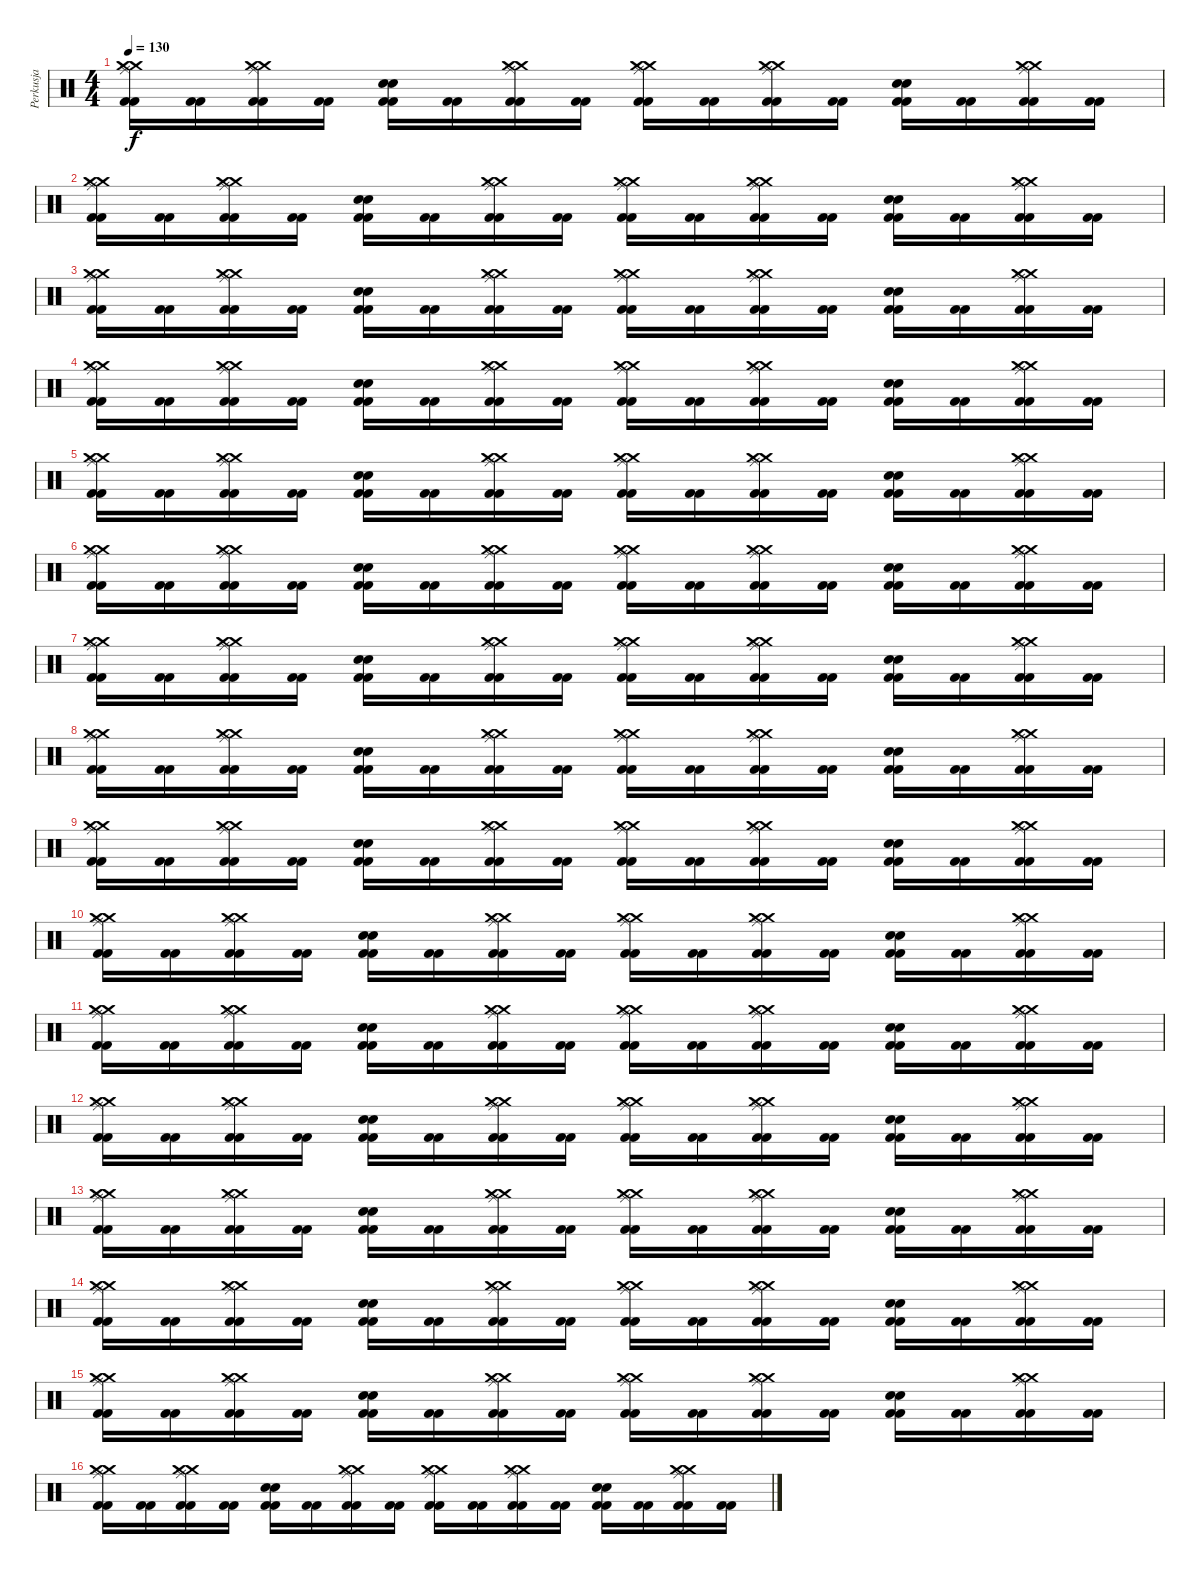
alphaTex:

\track ("Perkusja" "Perkusja") {instrument percussion}
\staff {score}
\articulation defaults
\ts (4 4)
\tempo 130
\clef neutral
\ks c
("Ride (middle)" "Crash medium (hit)" "Crash medium (hit)" "Kick (hit) 2" "Kick (hit) 2").16{dy f} ("Kick (hit) 2" "Kick (hit) 2").16 ("Ride (middle)" "Crash medium (hit)" "Crash medium (hit)" "Kick (hit) 2" "Kick (hit) 2").16 ("Kick (hit) 2" "Kick (hit) 2").16 ("Electric Snare (hit)" "Electric Snare (hit)" "Kick (hit) 2" "Kick (hit) 2").16 ("Kick (hit) 2" "Kick (hit) 2").16 ("Ride (middle)" "Crash medium (hit)" "Crash medium (hit)" "Kick (hit) 2" "Kick (hit) 2").16 ("Kick (hit) 2" "Kick (hit) 2").16 ("Ride (middle)" "Crash medium (hit)" "Crash medium (hit)" "Kick (hit) 2" "Kick (hit) 2").16 ("Kick (hit) 2" "Kick (hit) 2").16 ("Ride (middle)" "Crash medium (hit)" "Crash medium (hit)" "Kick (hit) 2" "Kick (hit) 2").16 ("Kick (hit) 2" "Kick (hit) 2").16 ("Electric Snare (hit)" "Electric Snare (hit)" "Kick (hit) 2" "Kick (hit) 2").16 ("Kick (hit) 2" "Kick (hit) 2").16 ("Ride (middle)" "Crash medium (hit)" "Crash medium (hit)" "Kick (hit) 2" "Kick (hit) 2").16 ("Kick (hit) 2" "Kick (hit) 2").16 |
("Ride (middle)" "Crash medium (hit)" "Crash medium (hit)" "Kick (hit) 2" "Kick (hit) 2").16 ("Kick (hit) 2" "Kick (hit) 2").16 ("Ride (middle)" "Crash medium (hit)" "Crash medium (hit)" "Kick (hit) 2" "Kick (hit) 2").16 ("Kick (hit) 2" "Kick (hit) 2").16 ("Electric Snare (hit)" "Electric Snare (hit)" "Kick (hit) 2" "Kick (hit) 2").16 ("Kick (hit) 2" "Kick (hit) 2").16 ("Ride (middle)" "Crash medium (hit)" "Crash medium (hit)" "Kick (hit) 2" "Kick (hit) 2").16 ("Kick (hit) 2" "Kick (hit) 2").16 ("Ride (middle)" "Crash medium (hit)" "Crash medium (hit)" "Kick (hit) 2" "Kick (hit) 2").16 ("Kick (hit) 2" "Kick (hit) 2").16 ("Ride (middle)" "Crash medium (hit)" "Crash medium (hit)" "Kick (hit) 2" "Kick (hit) 2").16 ("Kick (hit) 2" "Kick (hit) 2").16 ("Electric Snare (hit)" "Electric Snare (hit)" "Kick (hit) 2" "Kick (hit) 2").16 ("Kick (hit) 2" "Kick (hit) 2").16 ("Ride (middle)" "Crash medium (hit)" "Crash medium (hit)" "Kick (hit) 2" "Kick (hit) 2").16 ("Kick (hit) 2" "Kick (hit) 2").16 |
("Ride (middle)" "Crash medium (hit)" "Crash medium (hit)" "Kick (hit) 2" "Kick (hit) 2").16 ("Kick (hit) 2" "Kick (hit) 2").16 ("Ride (middle)" "Crash medium (hit)" "Crash medium (hit)" "Kick (hit) 2" "Kick (hit) 2").16 ("Kick (hit) 2" "Kick (hit) 2").16 ("Electric Snare (hit)" "Electric Snare (hit)" "Kick (hit) 2" "Kick (hit) 2").16 ("Kick (hit) 2" "Kick (hit) 2").16 ("Ride (middle)" "Crash medium (hit)" "Crash medium (hit)" "Kick (hit) 2" "Kick (hit) 2").16 ("Kick (hit) 2" "Kick (hit) 2").16 ("Ride (middle)" "Crash medium (hit)" "Crash medium (hit)" "Kick (hit) 2" "Kick (hit) 2").16 ("Kick (hit) 2" "Kick (hit) 2").16 ("Ride (middle)" "Crash medium (hit)" "Crash medium (hit)" "Kick (hit) 2" "Kick (hit) 2").16 ("Kick (hit) 2" "Kick (hit) 2").16 ("Electric Snare (hit)" "Electric Snare (hit)" "Kick (hit) 2" "Kick (hit) 2").16 ("Kick (hit) 2" "Kick (hit) 2").16 ("Ride (middle)" "Crash medium (hit)" "Crash medium (hit)" "Kick (hit) 2" "Kick (hit) 2").16 ("Kick (hit) 2" "Kick (hit) 2").16 |
("Ride (middle)" "Crash medium (hit)" "Crash medium (hit)" "Kick (hit) 2" "Kick (hit) 2").16 ("Kick (hit) 2" "Kick (hit) 2").16 ("Ride (middle)" "Crash medium (hit)" "Crash medium (hit)" "Kick (hit) 2" "Kick (hit) 2").16 ("Kick (hit) 2" "Kick (hit) 2").16 ("Electric Snare (hit)" "Electric Snare (hit)" "Kick (hit) 2" "Kick (hit) 2").16 ("Kick (hit) 2" "Kick (hit) 2").16 ("Ride (middle)" "Crash medium (hit)" "Crash medium (hit)" "Kick (hit) 2" "Kick (hit) 2").16 ("Kick (hit) 2" "Kick (hit) 2").16 ("Ride (middle)" "Crash medium (hit)" "Crash medium (hit)" "Kick (hit) 2" "Kick (hit) 2").16 ("Kick (hit) 2" "Kick (hit) 2").16 ("Ride (middle)" "Crash medium (hit)" "Crash medium (hit)" "Kick (hit) 2" "Kick (hit) 2").16 ("Kick (hit) 2" "Kick (hit) 2").16 ("Electric Snare (hit)" "Electric Snare (hit)" "Kick (hit) 2" "Kick (hit) 2").16 ("Kick (hit) 2" "Kick (hit) 2").16 ("Ride (middle)" "Crash medium (hit)" "Crash medium (hit)" "Kick (hit) 2" "Kick (hit) 2").16 ("Kick (hit) 2" "Kick (hit) 2").16 |
("Ride (middle)" "Crash medium (hit)" "Crash medium (hit)" "Kick (hit) 2" "Kick (hit) 2").16 ("Kick (hit) 2" "Kick (hit) 2").16 ("Ride (middle)" "Crash medium (hit)" "Crash medium (hit)" "Kick (hit) 2" "Kick (hit) 2").16 ("Kick (hit) 2" "Kick (hit) 2").16 ("Electric Snare (hit)" "Electric Snare (hit)" "Kick (hit) 2" "Kick (hit) 2").16 ("Kick (hit) 2" "Kick (hit) 2").16 ("Ride (middle)" "Crash medium (hit)" "Crash medium (hit)" "Kick (hit) 2" "Kick (hit) 2").16 ("Kick (hit) 2" "Kick (hit) 2").16 ("Ride (middle)" "Crash medium (hit)" "Crash medium (hit)" "Kick (hit) 2" "Kick (hit) 2").16 ("Kick (hit) 2" "Kick (hit) 2").16 ("Ride (middle)" "Crash medium (hit)" "Crash medium (hit)" "Kick (hit) 2" "Kick (hit) 2").16 ("Kick (hit) 2" "Kick (hit) 2").16 ("Electric Snare (hit)" "Electric Snare (hit)" "Kick (hit) 2" "Kick (hit) 2").16 ("Kick (hit) 2" "Kick (hit) 2").16 ("Ride (middle)" "Crash medium (hit)" "Crash medium (hit)" "Kick (hit) 2" "Kick (hit) 2").16 ("Kick (hit) 2" "Kick (hit) 2").16 |
("Ride (middle)" "Crash medium (hit)" "Crash medium (hit)" "Kick (hit) 2" "Kick (hit) 2").16 ("Kick (hit) 2" "Kick (hit) 2").16 ("Ride (middle)" "Crash medium (hit)" "Crash medium (hit)" "Kick (hit) 2" "Kick (hit) 2").16 ("Kick (hit) 2" "Kick (hit) 2").16 ("Electric Snare (hit)" "Electric Snare (hit)" "Kick (hit) 2" "Kick (hit) 2").16 ("Kick (hit) 2" "Kick (hit) 2").16 ("Ride (middle)" "Crash medium (hit)" "Crash medium (hit)" "Kick (hit) 2" "Kick (hit) 2").16 ("Kick (hit) 2" "Kick (hit) 2").16 ("Ride (middle)" "Crash medium (hit)" "Crash medium (hit)" "Kick (hit) 2" "Kick (hit) 2").16 ("Kick (hit) 2" "Kick (hit) 2").16 ("Ride (middle)" "Crash medium (hit)" "Crash medium (hit)" "Kick (hit) 2" "Kick (hit) 2").16 ("Kick (hit) 2" "Kick (hit) 2").16 ("Electric Snare (hit)" "Electric Snare (hit)" "Kick (hit) 2" "Kick (hit) 2").16 ("Kick (hit) 2" "Kick (hit) 2").16 ("Ride (middle)" "Crash medium (hit)" "Crash medium (hit)" "Kick (hit) 2" "Kick (hit) 2").16 ("Kick (hit) 2" "Kick (hit) 2").16 |
("Ride (middle)" "Crash medium (hit)" "Crash medium (hit)" "Kick (hit) 2" "Kick (hit) 2").16 ("Kick (hit) 2" "Kick (hit) 2").16 ("Ride (middle)" "Crash medium (hit)" "Crash medium (hit)" "Kick (hit) 2" "Kick (hit) 2").16 ("Kick (hit) 2" "Kick (hit) 2").16 ("Electric Snare (hit)" "Electric Snare (hit)" "Kick (hit) 2" "Kick (hit) 2").16 ("Kick (hit) 2" "Kick (hit) 2").16 ("Ride (middle)" "Crash medium (hit)" "Crash medium (hit)" "Kick (hit) 2" "Kick (hit) 2").16 ("Kick (hit) 2" "Kick (hit) 2").16 ("Ride (middle)" "Crash medium (hit)" "Crash medium (hit)" "Kick (hit) 2" "Kick (hit) 2").16 ("Kick (hit) 2" "Kick (hit) 2").16 ("Ride (middle)" "Crash medium (hit)" "Crash medium (hit)" "Kick (hit) 2" "Kick (hit) 2").16 ("Kick (hit) 2" "Kick (hit) 2").16 ("Electric Snare (hit)" "Electric Snare (hit)" "Kick (hit) 2" "Kick (hit) 2").16 ("Kick (hit) 2" "Kick (hit) 2").16 ("Ride (middle)" "Crash medium (hit)" "Crash medium (hit)" "Kick (hit) 2" "Kick (hit) 2").16 ("Kick (hit) 2" "Kick (hit) 2").16 |
("Ride (middle)" "Crash medium (hit)" "Crash medium (hit)" "Kick (hit) 2" "Kick (hit) 2").16 ("Kick (hit) 2" "Kick (hit) 2").16 ("Ride (middle)" "Crash medium (hit)" "Crash medium (hit)" "Kick (hit) 2" "Kick (hit) 2").16 ("Kick (hit) 2" "Kick (hit) 2").16 ("Electric Snare (hit)" "Electric Snare (hit)" "Kick (hit) 2" "Kick (hit) 2").16 ("Kick (hit) 2" "Kick (hit) 2").16 ("Ride (middle)" "Crash medium (hit)" "Crash medium (hit)" "Kick (hit) 2" "Kick (hit) 2").16 ("Kick (hit) 2" "Kick (hit) 2").16 ("Ride (middle)" "Crash medium (hit)" "Crash medium (hit)" "Kick (hit) 2" "Kick (hit) 2").16 ("Kick (hit) 2" "Kick (hit) 2").16 ("Ride (middle)" "Crash medium (hit)" "Crash medium (hit)" "Kick (hit) 2" "Kick (hit) 2").16 ("Kick (hit) 2" "Kick (hit) 2").16 ("Electric Snare (hit)" "Electric Snare (hit)" "Kick (hit) 2" "Kick (hit) 2").16 ("Kick (hit) 2" "Kick (hit) 2").16 ("Ride (middle)" "Crash medium (hit)" "Crash medium (hit)" "Kick (hit) 2" "Kick (hit) 2").16 ("Kick (hit) 2" "Kick (hit) 2").16 |
("Ride (middle)" "Crash medium (hit)" "Crash medium (hit)" "Kick (hit) 2" "Kick (hit) 2").16 ("Kick (hit) 2" "Kick (hit) 2").16 ("Ride (middle)" "Crash medium (hit)" "Crash medium (hit)" "Kick (hit) 2" "Kick (hit) 2").16 ("Kick (hit) 2" "Kick (hit) 2").16 ("Electric Snare (hit)" "Electric Snare (hit)" "Kick (hit) 2" "Kick (hit) 2").16 ("Kick (hit) 2" "Kick (hit) 2").16 ("Ride (middle)" "Crash medium (hit)" "Crash medium (hit)" "Kick (hit) 2" "Kick (hit) 2").16 ("Kick (hit) 2" "Kick (hit) 2").16 ("Ride (middle)" "Crash medium (hit)" "Crash medium (hit)" "Kick (hit) 2" "Kick (hit) 2").16 ("Kick (hit) 2" "Kick (hit) 2").16 ("Ride (middle)" "Crash medium (hit)" "Crash medium (hit)" "Kick (hit) 2" "Kick (hit) 2").16 ("Kick (hit) 2" "Kick (hit) 2").16 ("Electric Snare (hit)" "Electric Snare (hit)" "Kick (hit) 2" "Kick (hit) 2").16 ("Kick (hit) 2" "Kick (hit) 2").16 ("Ride (middle)" "Crash medium (hit)" "Crash medium (hit)" "Kick (hit) 2" "Kick (hit) 2").16 ("Kick (hit) 2" "Kick (hit) 2").16 |
("Ride (middle)" "Crash medium (hit)" "Crash medium (hit)" "Kick (hit) 2" "Kick (hit) 2").16 ("Kick (hit) 2" "Kick (hit) 2").16 ("Ride (middle)" "Crash medium (hit)" "Crash medium (hit)" "Kick (hit) 2" "Kick (hit) 2").16 ("Kick (hit) 2" "Kick (hit) 2").16 ("Electric Snare (hit)" "Electric Snare (hit)" "Kick (hit) 2" "Kick (hit) 2").16 ("Kick (hit) 2" "Kick (hit) 2").16 ("Ride (middle)" "Crash medium (hit)" "Crash medium (hit)" "Kick (hit) 2" "Kick (hit) 2").16 ("Kick (hit) 2" "Kick (hit) 2").16 ("Ride (middle)" "Crash medium (hit)" "Crash medium (hit)" "Kick (hit) 2" "Kick (hit) 2").16 ("Kick (hit) 2" "Kick (hit) 2").16 ("Ride (middle)" "Crash medium (hit)" "Crash medium (hit)" "Kick (hit) 2" "Kick (hit) 2").16 ("Kick (hit) 2" "Kick (hit) 2").16 ("Electric Snare (hit)" "Electric Snare (hit)" "Kick (hit) 2" "Kick (hit) 2").16 ("Kick (hit) 2" "Kick (hit) 2").16 ("Ride (middle)" "Crash medium (hit)" "Crash medium (hit)" "Kick (hit) 2" "Kick (hit) 2").16 ("Kick (hit) 2" "Kick (hit) 2").16 |
("Ride (middle)" "Crash medium (hit)" "Crash medium (hit)" "Kick (hit) 2" "Kick (hit) 2").16 ("Kick (hit) 2" "Kick (hit) 2").16 ("Ride (middle)" "Crash medium (hit)" "Crash medium (hit)" "Kick (hit) 2" "Kick (hit) 2").16 ("Kick (hit) 2" "Kick (hit) 2").16 ("Electric Snare (hit)" "Electric Snare (hit)" "Kick (hit) 2" "Kick (hit) 2").16 ("Kick (hit) 2" "Kick (hit) 2").16 ("Ride (middle)" "Crash medium (hit)" "Crash medium (hit)" "Kick (hit) 2" "Kick (hit) 2").16 ("Kick (hit) 2" "Kick (hit) 2").16 ("Ride (middle)" "Crash medium (hit)" "Crash medium (hit)" "Kick (hit) 2" "Kick (hit) 2").16 ("Kick (hit) 2" "Kick (hit) 2").16 ("Ride (middle)" "Crash medium (hit)" "Crash medium (hit)" "Kick (hit) 2" "Kick (hit) 2").16 ("Kick (hit) 2" "Kick (hit) 2").16 ("Electric Snare (hit)" "Electric Snare (hit)" "Kick (hit) 2" "Kick (hit) 2").16 ("Kick (hit) 2" "Kick (hit) 2").16 ("Ride (middle)" "Crash medium (hit)" "Crash medium (hit)" "Kick (hit) 2" "Kick (hit) 2").16 ("Kick (hit) 2" "Kick (hit) 2").16 |
("Ride (middle)" "Crash medium (hit)" "Crash medium (hit)" "Kick (hit) 2" "Kick (hit) 2").16 ("Kick (hit) 2" "Kick (hit) 2").16 ("Ride (middle)" "Crash medium (hit)" "Crash medium (hit)" "Kick (hit) 2" "Kick (hit) 2").16 ("Kick (hit) 2" "Kick (hit) 2").16 ("Electric Snare (hit)" "Electric Snare (hit)" "Kick (hit) 2" "Kick (hit) 2").16 ("Kick (hit) 2" "Kick (hit) 2").16 ("Ride (middle)" "Crash medium (hit)" "Crash medium (hit)" "Kick (hit) 2" "Kick (hit) 2").16 ("Kick (hit) 2" "Kick (hit) 2").16 ("Ride (middle)" "Crash medium (hit)" "Crash medium (hit)" "Kick (hit) 2" "Kick (hit) 2").16 ("Kick (hit) 2" "Kick (hit) 2").16 ("Ride (middle)" "Crash medium (hit)" "Crash medium (hit)" "Kick (hit) 2" "Kick (hit) 2").16 ("Kick (hit) 2" "Kick (hit) 2").16 ("Electric Snare (hit)" "Electric Snare (hit)" "Kick (hit) 2" "Kick (hit) 2").16 ("Kick (hit) 2" "Kick (hit) 2").16 ("Ride (middle)" "Crash medium (hit)" "Crash medium (hit)" "Kick (hit) 2" "Kick (hit) 2").16 ("Kick (hit) 2" "Kick (hit) 2").16 |
("Ride (middle)" "Crash medium (hit)" "Crash medium (hit)" "Kick (hit) 2" "Kick (hit) 2").16 ("Kick (hit) 2" "Kick (hit) 2").16 ("Ride (middle)" "Crash medium (hit)" "Crash medium (hit)" "Kick (hit) 2" "Kick (hit) 2").16 ("Kick (hit) 2" "Kick (hit) 2").16 ("Electric Snare (hit)" "Electric Snare (hit)" "Kick (hit) 2" "Kick (hit) 2").16 ("Kick (hit) 2" "Kick (hit) 2").16 ("Ride (middle)" "Crash medium (hit)" "Crash medium (hit)" "Kick (hit) 2" "Kick (hit) 2").16 ("Kick (hit) 2" "Kick (hit) 2").16 ("Ride (middle)" "Crash medium (hit)" "Crash medium (hit)" "Kick (hit) 2" "Kick (hit) 2").16 ("Kick (hit) 2" "Kick (hit) 2").16 ("Ride (middle)" "Crash medium (hit)" "Crash medium (hit)" "Kick (hit) 2" "Kick (hit) 2").16 ("Kick (hit) 2" "Kick (hit) 2").16 ("Electric Snare (hit)" "Electric Snare (hit)" "Kick (hit) 2" "Kick (hit) 2").16 ("Kick (hit) 2" "Kick (hit) 2").16 ("Ride (middle)" "Crash medium (hit)" "Crash medium (hit)" "Kick (hit) 2" "Kick (hit) 2").16 ("Kick (hit) 2" "Kick (hit) 2").16 |
("Ride (middle)" "Crash medium (hit)" "Crash medium (hit)" "Kick (hit) 2" "Kick (hit) 2").16 ("Kick (hit) 2" "Kick (hit) 2").16 ("Ride (middle)" "Crash medium (hit)" "Crash medium (hit)" "Kick (hit) 2" "Kick (hit) 2").16 ("Kick (hit) 2" "Kick (hit) 2").16 ("Electric Snare (hit)" "Electric Snare (hit)" "Kick (hit) 2" "Kick (hit) 2").16 ("Kick (hit) 2" "Kick (hit) 2").16 ("Ride (middle)" "Crash medium (hit)" "Crash medium (hit)" "Kick (hit) 2" "Kick (hit) 2").16 ("Kick (hit) 2" "Kick (hit) 2").16 ("Ride (middle)" "Crash medium (hit)" "Crash medium (hit)" "Kick (hit) 2" "Kick (hit) 2").16 ("Kick (hit) 2" "Kick (hit) 2").16 ("Ride (middle)" "Crash medium (hit)" "Crash medium (hit)" "Kick (hit) 2" "Kick (hit) 2").16 ("Kick (hit) 2" "Kick (hit) 2").16 ("Electric Snare (hit)" "Electric Snare (hit)" "Kick (hit) 2" "Kick (hit) 2").16 ("Kick (hit) 2" "Kick (hit) 2").16 ("Ride (middle)" "Crash medium (hit)" "Crash medium (hit)" "Kick (hit) 2" "Kick (hit) 2").16 ("Kick (hit) 2" "Kick (hit) 2").16 |
("Ride (middle)" "Crash medium (hit)" "Crash medium (hit)" "Kick (hit) 2" "Kick (hit) 2").16 ("Kick (hit) 2" "Kick (hit) 2").16 ("Ride (middle)" "Crash medium (hit)" "Crash medium (hit)" "Kick (hit) 2" "Kick (hit) 2").16 ("Kick (hit) 2" "Kick (hit) 2").16 ("Electric Snare (hit)" "Electric Snare (hit)" "Kick (hit) 2" "Kick (hit) 2").16 ("Kick (hit) 2" "Kick (hit) 2").16 ("Ride (middle)" "Crash medium (hit)" "Crash medium (hit)" "Kick (hit) 2" "Kick (hit) 2").16 ("Kick (hit) 2" "Kick (hit) 2").16 ("Ride (middle)" "Crash medium (hit)" "Crash medium (hit)" "Kick (hit) 2" "Kick (hit) 2").16 ("Kick (hit) 2" "Kick (hit) 2").16 ("Ride (middle)" "Crash medium (hit)" "Crash medium (hit)" "Kick (hit) 2" "Kick (hit) 2").16 ("Kick (hit) 2" "Kick (hit) 2").16 ("Electric Snare (hit)" "Electric Snare (hit)" "Kick (hit) 2" "Kick (hit) 2").16 ("Kick (hit) 2" "Kick (hit) 2").16 ("Ride (middle)" "Crash medium (hit)" "Crash medium (hit)" "Kick (hit) 2" "Kick (hit) 2").16 ("Kick (hit) 2" "Kick (hit) 2").16 |
("Ride (middle)" "Crash medium (hit)" "Crash medium (hit)" "Kick (hit) 2" "Kick (hit) 2").16 ("Kick (hit) 2" "Kick (hit) 2").16 ("Ride (middle)" "Crash medium (hit)" "Crash medium (hit)" "Kick (hit) 2" "Kick (hit) 2").16 ("Kick (hit) 2" "Kick (hit) 2").16 ("Electric Snare (hit)" "Electric Snare (hit)" "Kick (hit) 2" "Kick (hit) 2").16 ("Kick (hit) 2" "Kick (hit) 2").16 ("Ride (middle)" "Crash medium (hit)" "Crash medium (hit)" "Kick (hit) 2" "Kick (hit) 2").16 ("Kick (hit) 2" "Kick (hit) 2").16 ("Ride (middle)" "Crash medium (hit)" "Crash medium (hit)" "Kick (hit) 2" "Kick (hit) 2").16 ("Kick (hit) 2" "Kick (hit) 2").16 ("Ride (middle)" "Crash medium (hit)" "Crash medium (hit)" "Kick (hit) 2" "Kick (hit) 2").16 ("Kick (hit) 2" "Kick (hit) 2").16 ("Electric Snare (hit)" "Electric Snare (hit)" "Kick (hit) 2" "Kick (hit) 2").16 ("Kick (hit) 2" "Kick (hit) 2").16 ("Ride (middle)" "Crash medium (hit)" "Crash medium (hit)" "Kick (hit) 2" "Kick (hit) 2").16 ("Kick (hit) 2" "Kick (hit) 2").16
